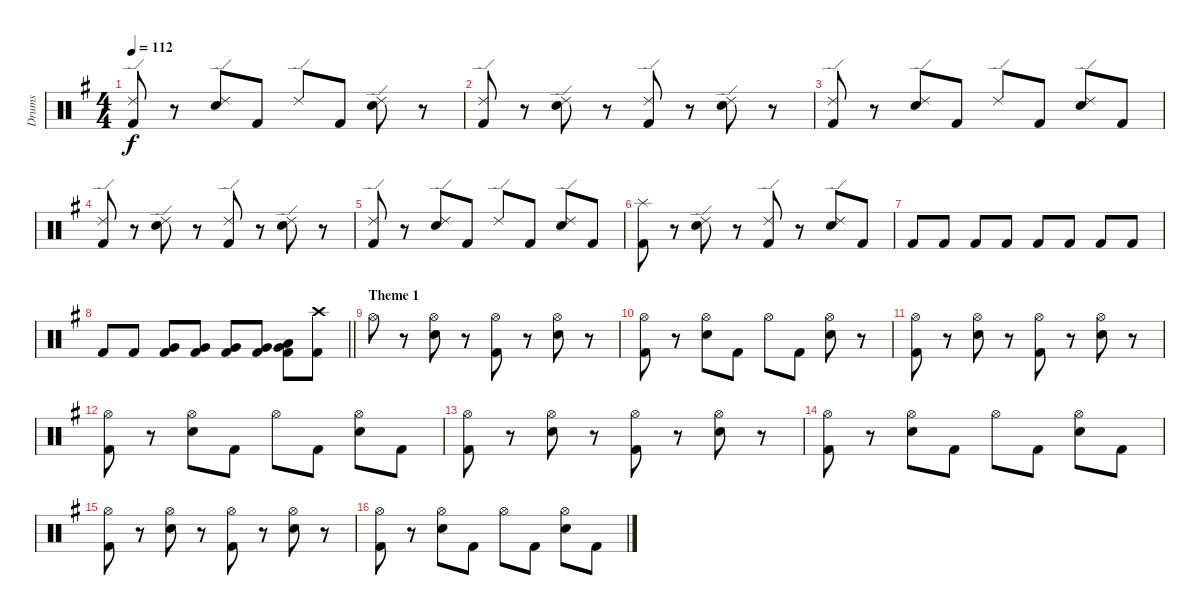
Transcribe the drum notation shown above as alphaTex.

\track ("Drums" "Drums") {instrument percussion}
\staff {score}
\articulation defaults
\ts (4 4)
\tempo 112
\clef neutral
\ks eminor
("Ride (edge) 2" "Kick (hit) 2").8{dy f} r.8 ("Ride (edge) 2" "Electric Snare (hit)").8 "Kick (hit) 2".8 "Ride (edge) 2".8 "Kick (hit) 2".8 ("Ride (edge) 2" "Electric Snare (hit)").8 r.8 |
("Ride (edge) 2" "Kick (hit) 2").8 r.8 ("Ride (edge) 2" "Electric Snare (hit)").8 r.8 ("Ride (edge) 2" "Kick (hit) 2").8 r.8 ("Ride (edge) 2" "Electric Snare (hit)").8 r.8 |
("Ride (edge) 2" "Kick (hit) 2").8 r.8 ("Ride (edge) 2" "Electric Snare (hit)").8 "Kick (hit) 2".8 "Ride (edge) 2".8 "Kick (hit) 2".8 ("Ride (edge) 2" "Electric Snare (hit)").8 "Kick (hit) 2".8 |
("Ride (edge) 2" "Kick (hit) 2").8 r.8 ("Ride (edge) 2" "Electric Snare (hit)").8 r.8 ("Ride (edge) 2" "Kick (hit) 2").8 r.8 ("Ride (edge) 2" "Electric Snare (hit)").8 r.8 |
("Ride (edge) 2" "Kick (hit) 2").8 r.8 ("Ride (edge) 2" "Electric Snare (hit)").8 "Kick (hit) 2".8 "Ride (edge) 2".8 "Kick (hit) 2".8 ("Ride (edge) 2" "Electric Snare (hit)").8 "Kick (hit) 2".8 |
("Splash (hit)" "Kick (hit) 2").8 r.8 ("Ride (edge) 2" "Electric Snare (hit)").8 r.8 ("Ride (edge) 2" "Kick (hit) 2").8 r.8 ("Ride (edge) 2" "Electric Snare (hit)").8 "Kick (hit) 2".8 |
"Kick (hit) 2".8 "Kick (hit) 2".8 "Kick (hit) 2".8 "Kick (hit) 2".8 "Kick (hit) 2".8 "Kick (hit) 2".8 "Kick (hit) 2".8 "Kick (hit) 2".8 |
\barLineRight lightlight "Kick (hit) 2".8 "Kick (hit) 2".8
("Very Low Tom (hit)" "Kick (hit) 2").8 ("Very Low Tom (hit)" "Kick (hit) 2").8 ("Very Low Tom (hit)" "Kick (hit) 2").8 ("Very Low Tom (hit)" "Kick (hit) 2").8 ("Very Low Tom (hit)" "Low Floor Tom (hit)" "Kick (hit) 2").8 ("Crash high (hit)" "Kick (hit) 2").8 |
\section ("" "Theme 1")
"Hi-Hat (open)".8 r.8 ("Hi-Hat (open)" "Electric Snare (hit)").8 r.8 ("Hi-Hat (open)" "Kick (hit) 2").8 r.8 ("Hi-Hat (open)" "Electric Snare (hit)").8 r.8 |
("Hi-Hat (open)" "Kick (hit) 2").8 r.8 ("Hi-Hat (open)" "Electric Snare (hit)").8 "Kick (hit) 2".8 "Hi-Hat (open)".8 "Kick (hit) 2".8 ("Hi-Hat (open)" "Electric Snare (hit)").8 r.8 |
("Hi-Hat (open)" "Kick (hit) 2").8 r.8 ("Hi-Hat (open)" "Electric Snare (hit)").8 r.8 ("Hi-Hat (open)" "Kick (hit) 2").8 r.8 ("Hi-Hat (open)" "Electric Snare (hit)").8 r.8 |
("Hi-Hat (open)" "Kick (hit) 2").8 r.8 ("Hi-Hat (open)" "Electric Snare (hit)").8 "Kick (hit) 2".8 "Hi-Hat (open)".8 "Kick (hit) 2".8 ("Hi-Hat (open)" "Electric Snare (hit)").8 "Kick (hit) 2".8 |
("Hi-Hat (open)" "Kick (hit) 2").8 r.8 ("Hi-Hat (open)" "Electric Snare (hit)").8 r.8 ("Hi-Hat (open)" "Kick (hit) 2").8 r.8 ("Hi-Hat (open)" "Electric Snare (hit)").8 r.8 |
("Hi-Hat (open)" "Kick (hit) 2").8 r.8 ("Hi-Hat (open)" "Electric Snare (hit)").8 "Kick (hit) 2".8 "Hi-Hat (open)".8 "Kick (hit) 2".8 ("Hi-Hat (open)" "Electric Snare (hit)").8 "Kick (hit) 2".8 |
("Hi-Hat (open)" "Kick (hit) 2").8 r.8 ("Hi-Hat (open)" "Electric Snare (hit)").8 r.8 ("Hi-Hat (open)" "Kick (hit) 2").8 r.8 ("Hi-Hat (open)" "Electric Snare (hit)").8 r.8 |
("Hi-Hat (open)" "Kick (hit) 2").8 r.8 ("Hi-Hat (open)" "Electric Snare (hit)").8 "Kick (hit) 2".8 "Hi-Hat (open)".8 "Kick (hit) 2".8 ("Hi-Hat (open)" "Electric Snare (hit)").8 "Kick (hit) 2".8
